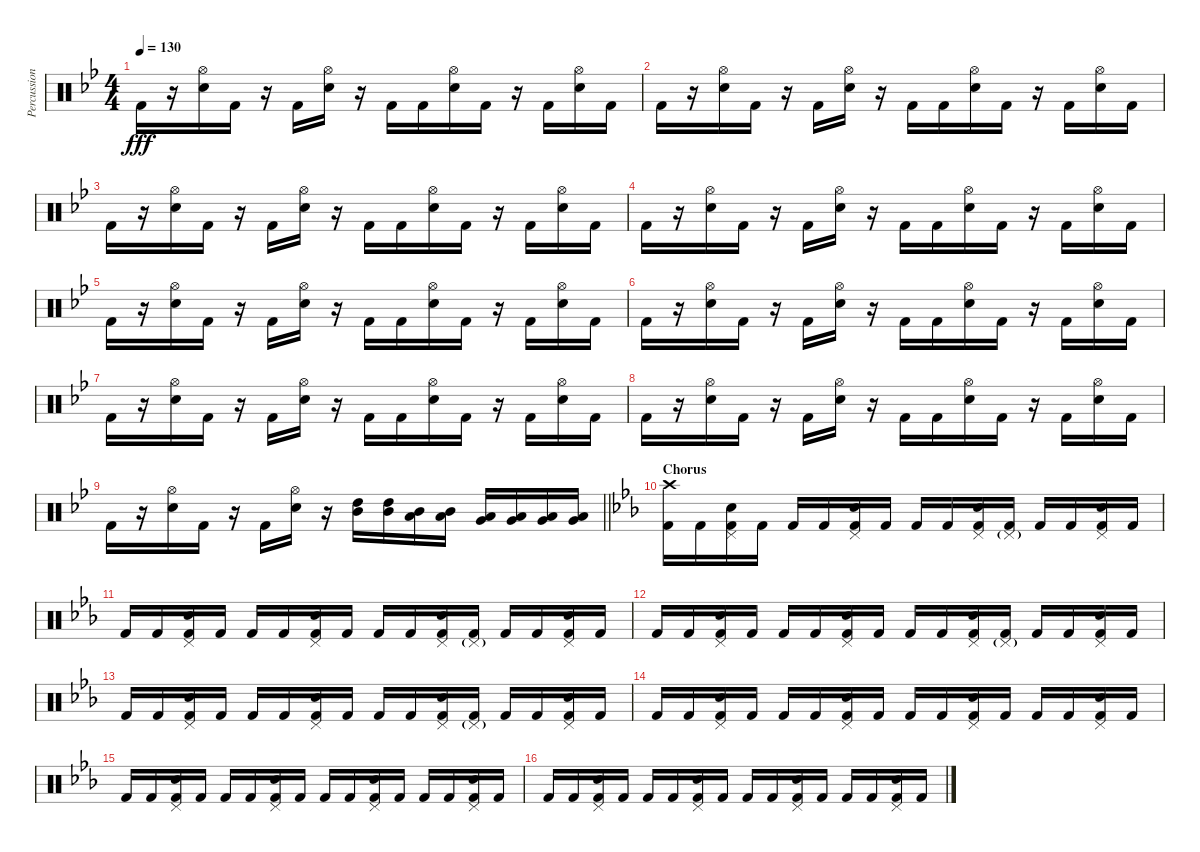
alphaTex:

\track ("Percussion" "Percussion") {instrument percussion}
\staff {score}
\articulation defaults
\ts (4 4)
\tempo 130
\clef neutral
\ks gminor "Kick (hit) 2".16{dy fff}
r.16 ("Hi-Hat (open)" "Electric Snare (hit)").16 "Kick (hit) 2".16 r.16 "Kick (hit) 2".16 ("Hi-Hat (open)" "Electric Snare (hit)").16 r.16 "Kick (hit) 2".16 "Kick (hit) 2".16 ("Hi-Hat (open)" "Electric Snare (hit)").16 "Kick (hit) 2".16 r.16 "Kick (hit) 2".16 ("Hi-Hat (open)" "Electric Snare (hit)").16 "Kick (hit) 2".16 |
"Kick (hit) 2".16 r.16 ("Hi-Hat (open)" "Electric Snare (hit)").16 "Kick (hit) 2".16 r.16 "Kick (hit) 2".16 ("Hi-Hat (open)" "Electric Snare (hit)").16 r.16 "Kick (hit) 2".16 "Kick (hit) 2".16 ("Hi-Hat (open)" "Electric Snare (hit)").16 "Kick (hit) 2".16 r.16 "Kick (hit) 2".16 ("Hi-Hat (open)" "Electric Snare (hit)").16 "Kick (hit) 2".16 |
"Kick (hit) 2".16 r.16 ("Hi-Hat (open)" "Electric Snare (hit)").16 "Kick (hit) 2".16 r.16 "Kick (hit) 2".16 ("Hi-Hat (open)" "Electric Snare (hit)").16 r.16 "Kick (hit) 2".16 "Kick (hit) 2".16 ("Hi-Hat (open)" "Electric Snare (hit)").16 "Kick (hit) 2".16 r.16 "Kick (hit) 2".16 ("Hi-Hat (open)" "Electric Snare (hit)").16 "Kick (hit) 2".16 |
"Kick (hit) 2".16 r.16 ("Hi-Hat (open)" "Electric Snare (hit)").16 "Kick (hit) 2".16 r.16 "Kick (hit) 2".16 ("Hi-Hat (open)" "Electric Snare (hit)").16 r.16 "Kick (hit) 2".16 "Kick (hit) 2".16 ("Hi-Hat (open)" "Electric Snare (hit)").16 "Kick (hit) 2".16 r.16 "Kick (hit) 2".16 ("Hi-Hat (open)" "Electric Snare (hit)").16 "Kick (hit) 2".16 |
"Kick (hit) 2".16 r.16 ("Hi-Hat (open)" "Electric Snare (hit)").16 "Kick (hit) 2".16 r.16 "Kick (hit) 2".16 ("Hi-Hat (open)" "Electric Snare (hit)").16 r.16 "Kick (hit) 2".16 "Kick (hit) 2".16 ("Hi-Hat (open)" "Electric Snare (hit)").16 "Kick (hit) 2".16 r.16 "Kick (hit) 2".16 ("Hi-Hat (open)" "Electric Snare (hit)").16 "Kick (hit) 2".16 |
"Kick (hit) 2".16 r.16 ("Hi-Hat (open)" "Electric Snare (hit)").16 "Kick (hit) 2".16 r.16 "Kick (hit) 2".16 ("Hi-Hat (open)" "Electric Snare (hit)").16 r.16 "Kick (hit) 2".16 "Kick (hit) 2".16 ("Hi-Hat (open)" "Electric Snare (hit)").16 "Kick (hit) 2".16 r.16 "Kick (hit) 2".16 ("Hi-Hat (open)" "Electric Snare (hit)").16 "Kick (hit) 2".16 |
"Kick (hit) 2".16 r.16 ("Hi-Hat (open)" "Electric Snare (hit)").16 "Kick (hit) 2".16 r.16 "Kick (hit) 2".16 ("Hi-Hat (open)" "Electric Snare (hit)").16 r.16 "Kick (hit) 2".16 "Kick (hit) 2".16 ("Hi-Hat (open)" "Electric Snare (hit)").16 "Kick (hit) 2".16 r.16 "Kick (hit) 2".16 ("Hi-Hat (open)" "Electric Snare (hit)").16 "Kick (hit) 2".16 |
"Kick (hit) 2".16 r.16 ("Hi-Hat (open)" "Electric Snare (hit)").16 "Kick (hit) 2".16 r.16 "Kick (hit) 2".16 ("Hi-Hat (open)" "Electric Snare (hit)").16 r.16 "Kick (hit) 2".16 "Kick (hit) 2".16 ("Hi-Hat (open)" "Electric Snare (hit)").16 "Kick (hit) 2".16 r.16 "Kick (hit) 2".16 ("Hi-Hat (open)" "Electric Snare (hit)").16 "Kick (hit) 2".16 |
\barLineRight lightlight "Kick (hit) 2".16
r.16 ("Hi-Hat (open)" "Electric Snare (hit)").16 "Kick (hit) 2".16 r.16 "Kick (hit) 2".16 ("Hi-Hat (open)" "Electric Snare (hit)").16 r.16 ("High Tom (hit)" "Mid Tom (hit)").16 ("High Tom (hit)" "Mid Tom (hit)").16 ("Mid Tom (hit)" "Low Tom (hit)").16 ("Mid Tom (hit)" "Low Tom (hit)").16 ("Low Tom (hit)" "Very Low Tom (hit)").16 ("Low Tom (hit)" "Very Low Tom (hit)").16 ("Very Low Tom (hit)" "Low Floor Tom (hit)").16 ("Very Low Tom (hit)" "Low Floor Tom (hit)").16 |
\section ("" "Chorus")
\ks cminor
("Crash high (hit)" "Kick (hit) 2").16 "Kick (hit) 2".16 ("Pedal Hi-Hat (hit)" "Electric Snare (hit)" "Kick (hit) 2").16 "Kick (hit) 2".16 "Kick (hit) 2".16 "Kick (hit) 2".16 ("Pedal Hi-Hat (hit)" "Electric Snare (hit)" "Kick (hit) 2").16 "Kick (hit) 2".16 "Kick (hit) 2".16 "Kick (hit) 2".16 ("Pedal Hi-Hat (hit)" "Electric Snare (hit)" "Kick (hit) 2").16 ("Pedal Hi-Hat (hit)"{g} "Kick (hit) 2").16 "Kick (hit) 2".16 "Kick (hit) 2".16 ("Pedal Hi-Hat (hit)" "Electric Snare (hit)" "Kick (hit) 2").16 "Kick (hit) 2".16 |
"Kick (hit) 2".16 "Kick (hit) 2".16 ("Pedal Hi-Hat (hit)" "Electric Snare (hit)" "Kick (hit) 2").16 "Kick (hit) 2".16 "Kick (hit) 2".16 "Kick (hit) 2".16 ("Pedal Hi-Hat (hit)" "Electric Snare (hit)" "Kick (hit) 2").16 "Kick (hit) 2".16 "Kick (hit) 2".16 "Kick (hit) 2".16 ("Pedal Hi-Hat (hit)" "Electric Snare (hit)" "Kick (hit) 2").16 ("Pedal Hi-Hat (hit)"{g} "Kick (hit) 2").16 "Kick (hit) 2".16 "Kick (hit) 2".16 ("Pedal Hi-Hat (hit)" "Electric Snare (hit)" "Kick (hit) 2").16 "Kick (hit) 2".16 |
"Kick (hit) 2".16 "Kick (hit) 2".16 ("Pedal Hi-Hat (hit)" "Electric Snare (hit)" "Kick (hit) 2").16 "Kick (hit) 2".16 "Kick (hit) 2".16 "Kick (hit) 2".16 ("Pedal Hi-Hat (hit)" "Electric Snare (hit)" "Kick (hit) 2").16 "Kick (hit) 2".16 "Kick (hit) 2".16 "Kick (hit) 2".16 ("Pedal Hi-Hat (hit)" "Electric Snare (hit)" "Kick (hit) 2").16 ("Pedal Hi-Hat (hit)"{g} "Kick (hit) 2").16 "Kick (hit) 2".16 "Kick (hit) 2".16 ("Pedal Hi-Hat (hit)" "Electric Snare (hit)" "Kick (hit) 2").16 "Kick (hit) 2".16 |
"Kick (hit) 2".16 "Kick (hit) 2".16 ("Pedal Hi-Hat (hit)" "Electric Snare (hit)" "Kick (hit) 2").16 "Kick (hit) 2".16 "Kick (hit) 2".16 "Kick (hit) 2".16 ("Pedal Hi-Hat (hit)" "Electric Snare (hit)" "Kick (hit) 2").16 "Kick (hit) 2".16 "Kick (hit) 2".16 "Kick (hit) 2".16 ("Pedal Hi-Hat (hit)" "Electric Snare (hit)" "Kick (hit) 2").16 ("Pedal Hi-Hat (hit)"{g} "Kick (hit) 2").16 "Kick (hit) 2".16 "Kick (hit) 2".16 ("Pedal Hi-Hat (hit)" "Electric Snare (hit)" "Kick (hit) 2").16 "Kick (hit) 2".16 |
"Kick (hit) 2".16 "Kick (hit) 2".16 ("Pedal Hi-Hat (hit)" "Electric Snare (hit)" "Kick (hit) 2").16 "Kick (hit) 2".16 "Kick (hit) 2".16 "Kick (hit) 2".16 ("Pedal Hi-Hat (hit)" "Electric Snare (hit)" "Kick (hit) 2").16 "Kick (hit) 2".16 "Kick (hit) 2".16 "Kick (hit) 2".16 ("Pedal Hi-Hat (hit)" "Electric Snare (hit)" "Kick (hit) 2").16 "Kick (hit) 2".16 "Kick (hit) 2".16 "Kick (hit) 2".16 ("Pedal Hi-Hat (hit)" "Electric Snare (hit)" "Kick (hit) 2").16 "Kick (hit) 2".16 |
"Kick (hit) 2".16 "Kick (hit) 2".16 ("Pedal Hi-Hat (hit)" "Electric Snare (hit)" "Kick (hit) 2").16 "Kick (hit) 2".16 "Kick (hit) 2".16 "Kick (hit) 2".16 ("Pedal Hi-Hat (hit)" "Electric Snare (hit)" "Kick (hit) 2").16 "Kick (hit) 2".16 "Kick (hit) 2".16 "Kick (hit) 2".16 ("Pedal Hi-Hat (hit)" "Electric Snare (hit)" "Kick (hit) 2").16 "Kick (hit) 2".16 "Kick (hit) 2".16 "Kick (hit) 2".16 ("Pedal Hi-Hat (hit)" "Electric Snare (hit)" "Kick (hit) 2").16 "Kick (hit) 2".16 |
"Kick (hit) 2".16 "Kick (hit) 2".16 ("Pedal Hi-Hat (hit)" "Electric Snare (hit)" "Kick (hit) 2").16 "Kick (hit) 2".16 "Kick (hit) 2".16 "Kick (hit) 2".16 ("Pedal Hi-Hat (hit)" "Electric Snare (hit)" "Kick (hit) 2").16 "Kick (hit) 2".16 "Kick (hit) 2".16 "Kick (hit) 2".16 ("Pedal Hi-Hat (hit)" "Electric Snare (hit)" "Kick (hit) 2").16 "Kick (hit) 2".16 "Kick (hit) 2".16 "Kick (hit) 2".16 ("Pedal Hi-Hat (hit)" "Electric Snare (hit)" "Kick (hit) 2").16 "Kick (hit) 2".16
